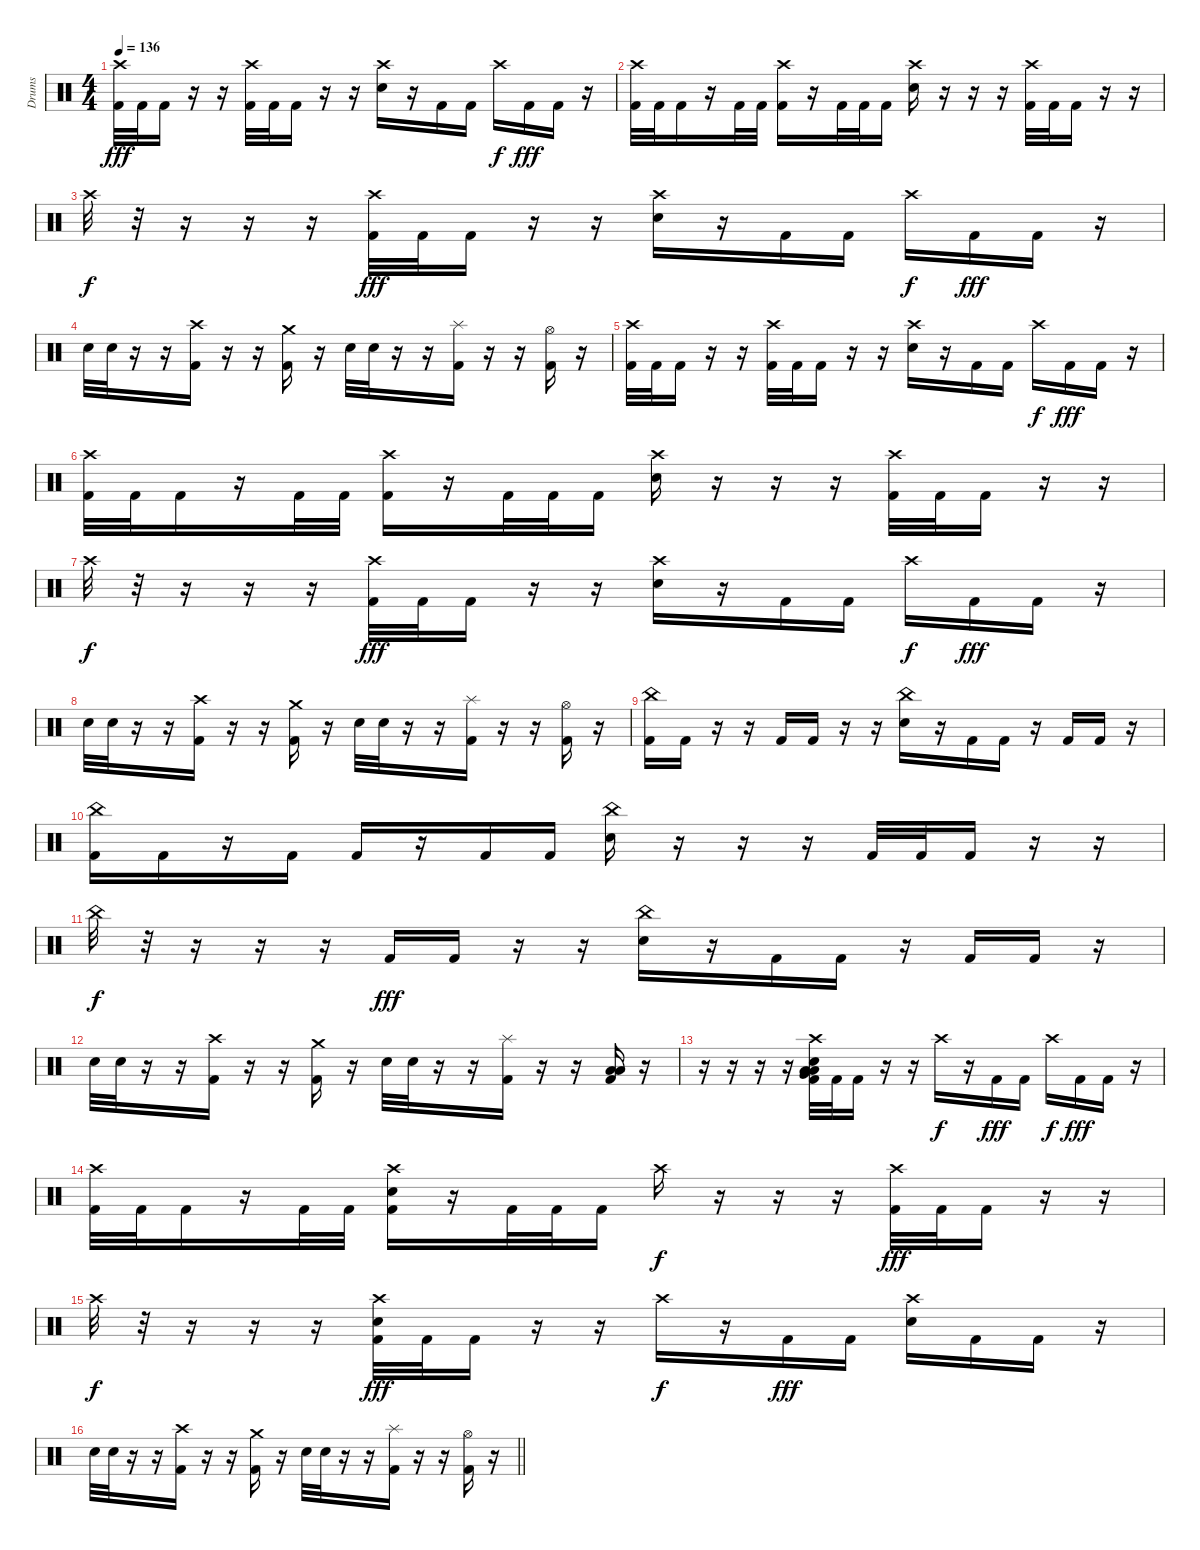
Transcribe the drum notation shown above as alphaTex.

\track ("Drums" "Drums") {instrument percussion}
\staff {score}
\articulation defaults
\ts (4 4)
\section ("" "")
\tempo 136
\clef neutral
\ks c
("Crash high (hit)" "Kick (hit) 2").32{dy fff} "Kick (hit) 2".32 "Kick (hit) 2".16 r.16 r.16 ("Crash high (hit)" "Kick (hit) 2").32 "Kick (hit) 2".32 "Kick (hit) 2".16 r.16 r.16 ("Crash high (hit)" "Electric Snare (hit)").16 r.16 "Kick (hit) 2".16 "Kick (hit) 2".16 "Crash high (hit)".16{dy f} "Kick (hit) 2".16{dy fff} "Kick (hit) 2".16 r.16 |
("Crash high (hit)" "Kick (hit) 2").32 "Kick (hit) 2".32 "Kick (hit) 2".16 r.16 "Kick (hit) 2".32 "Kick (hit) 2".32 ("Crash high (hit)" "Kick (hit) 2").16 r.16 "Kick (hit) 2".32 "Kick (hit) 2".32 "Kick (hit) 2".16 ("Crash high (hit)" "Electric Snare (hit)").16 r.16 r.16 r.16 ("Crash high (hit)" "Kick (hit) 2").32 "Kick (hit) 2".32 "Kick (hit) 2".16 r.16 r.16 |
"Crash high (hit)".32{dy f} r.32 r.16 r.16 r.16 ("Crash high (hit)" "Kick (hit) 2").32{dy fff} "Kick (hit) 2".32 "Kick (hit) 2".16 r.16 r.16 ("Crash high (hit)" "Electric Snare (hit)").16 r.16 "Kick (hit) 2".16 "Kick (hit) 2".16 "Crash high (hit)".16{dy f} "Kick (hit) 2".16{dy fff} "Kick (hit) 2".16 r.16 |
"Electric Snare (hit)".32 "Electric Snare (hit)".32 r.16 r.16 ("Crash high (hit)" "Kick (hit) 2").16 r.16 r.16 ("Crash medium (hit)" "Kick (hit) 2").16 r.16 "Electric Snare (hit)".32 "Electric Snare (hit)".32 r.16 r.16 ("Splash (hit)" "Kick (hit) 2").16 r.16 r.16 ("Hi-Hat (open)" "Kick (hit) 2").16 r.16 |
("Crash high (hit)" "Kick (hit) 2").32 "Kick (hit) 2".32 "Kick (hit) 2".16 r.16 r.16 ("Crash high (hit)" "Kick (hit) 2").32 "Kick (hit) 2".32 "Kick (hit) 2".16 r.16 r.16 ("Crash high (hit)" "Electric Snare (hit)").16 r.16 "Kick (hit) 2".16 "Kick (hit) 2".16 "Crash high (hit)".16{dy f} "Kick (hit) 2".16{dy fff} "Kick (hit) 2".16 r.16 |
("Crash high (hit)" "Kick (hit) 2").32 "Kick (hit) 2".32 "Kick (hit) 2".16 r.16 "Kick (hit) 2".32 "Kick (hit) 2".32 ("Crash high (hit)" "Kick (hit) 2").16 r.16 "Kick (hit) 2".32 "Kick (hit) 2".32 "Kick (hit) 2".16 ("Crash high (hit)" "Electric Snare (hit)").16 r.16 r.16 r.16 ("Crash high (hit)" "Kick (hit) 2").32 "Kick (hit) 2".32 "Kick (hit) 2".16 r.16 r.16 |
"Crash high (hit)".32{dy f} r.32 r.16 r.16 r.16 ("Crash high (hit)" "Kick (hit) 2").32{dy fff} "Kick (hit) 2".32 "Kick (hit) 2".16 r.16 r.16 ("Crash high (hit)" "Electric Snare (hit)").16 r.16 "Kick (hit) 2".16 "Kick (hit) 2".16 "Crash high (hit)".16{dy f} "Kick (hit) 2".16{dy fff} "Kick (hit) 2".16 r.16 |
"Electric Snare (hit)".32 "Electric Snare (hit)".32 r.16 r.16 ("Crash high (hit)" "Kick (hit) 2").16 r.16 r.16 ("Crash medium (hit)" "Kick (hit) 2").16 r.16 "Electric Snare (hit)".32 "Electric Snare (hit)".32 r.16 r.16 ("Splash (hit)" "Kick (hit) 2").16 r.16 r.16 ("Hi-Hat (open)" "Kick (hit) 2").16 r.16 |
("China (hit)" "Kick (hit) 2").16 "Kick (hit) 2".16 r.16 r.16 "Kick (hit) 2".16 "Kick (hit) 2".16 r.16 r.16 ("China (hit)" "Electric Snare (hit)").16 r.16 "Kick (hit) 2".16 "Kick (hit) 2".16 r.16 "Kick (hit) 2".16 "Kick (hit) 2".16 r.16 |
("China (hit)" "Kick (hit) 2").16 "Kick (hit) 2".16 r.16 "Kick (hit) 2".16 "Kick (hit) 2".16 r.16 "Kick (hit) 2".16 "Kick (hit) 2".16 ("China (hit)" "Electric Snare (hit)").16 r.16 r.16 r.16 "Kick (hit) 2".32 "Kick (hit) 2".32 "Kick (hit) 2".16 r.16 r.16 |
"China (hit)".32{dy f} r.32 r.16 r.16 r.16 "Kick (hit) 2".16{dy fff} "Kick (hit) 2".16 r.16 r.16 ("China (hit)" "Electric Snare (hit)").16 r.16 "Kick (hit) 2".16 "Kick (hit) 2".16 r.16 "Kick (hit) 2".16 "Kick (hit) 2".16 r.16 |
"Electric Snare (hit)".32 "Electric Snare (hit)".32 r.16 r.16 ("Crash high (hit)" "Kick (hit) 2").16 r.16 r.16 ("Crash medium (hit)" "Kick (hit) 2").16 r.16 "Electric Snare (hit)".32 "Electric Snare (hit)".32 r.16 r.16 ("Splash (hit)" "Kick (hit) 2").16 r.16 r.16 ("Low Tom (hit)" "Low Floor Tom (hit)" "Kick (hit) 2").16 r.16 |
r.16 r.16 r.16 r.16 ("Crash high (hit)" "Low Tom (hit)" "Low Floor Tom (hit)" "Very Low Tom (hit)" "Electric Snare (hit)" "Kick (hit) 2").32 "Kick (hit) 2".32 "Kick (hit) 2".16 r.16 r.16 "Crash high (hit)".16{dy f} r.16 "Kick (hit) 2".16{dy fff} "Kick (hit) 2".16 "Crash high (hit)".16{dy f} "Kick (hit) 2".16{dy fff} "Kick (hit) 2".16 r.16 |
("Crash high (hit)" "Kick (hit) 2").32 "Kick (hit) 2".32 "Kick (hit) 2".16 r.16 "Kick (hit) 2".32 "Kick (hit) 2".32 ("Crash high (hit)" "Electric Snare (hit)" "Kick (hit) 2").16 r.16 "Kick (hit) 2".32 "Kick (hit) 2".32 "Kick (hit) 2".16 "Crash high (hit)".16{dy f} r.16 r.16 r.16 ("Crash high (hit)" "Kick (hit) 2").32{dy fff} "Kick (hit) 2".32 "Kick (hit) 2".16 r.16 r.16 |
"Crash high (hit)".32{dy f} r.32 r.16 r.16 r.16 ("Crash high (hit)" "Electric Snare (hit)" "Kick (hit) 2").32{dy fff} "Kick (hit) 2".32 "Kick (hit) 2".16 r.16 r.16 "Crash high (hit)".16{dy f} r.16 "Kick (hit) 2".16{dy fff} "Kick (hit) 2".16 ("Crash high (hit)" "Electric Snare (hit)").16 "Kick (hit) 2".16 "Kick (hit) 2".16 r.16 |
\barLineRight lightlight "Electric Snare (hit)".32 "Electric Snare (hit)".32
r.16 r.16 ("Crash high (hit)" "Kick (hit) 2").16 r.16 r.16 ("Crash medium (hit)" "Kick (hit) 2").16 r.16 "Electric Snare (hit)".32 "Electric Snare (hit)".32 r.16 r.16 ("Splash (hit)" "Kick (hit) 2").16 r.16 r.16 ("Hi-Hat (open)" "Kick (hit) 2").16 r.16
